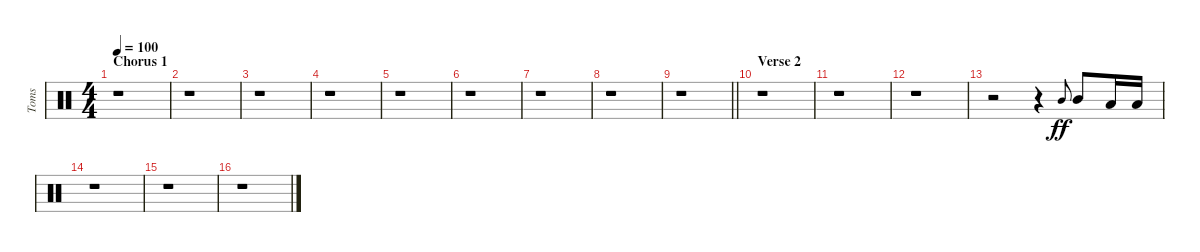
\track ("Toms" "Toms") {instrument percussion}
\staff {score}
\articulation defaults
\ts (4 4)
\section ("" "Chorus 1")
\tempo 100
\clef neutral
\ks c
r.1{dy ff} |
r.1 |
r.1 |
r.1 |
r.1 |
r.1 |
r.1 |
r.1 |
\barLineRight lightlight
r.1 |
\section ("" "Verse 2")
r.1 |
r.1 |
r.1 |
r.2 r.4 "Mid Tom (hit)".8{gr onbeat} "Mid Tom (hit)".8 "Low Tom (hit)".16{balance 5} "Low Tom (hit)".16 |
r.1 |
r.1 |
r.1
